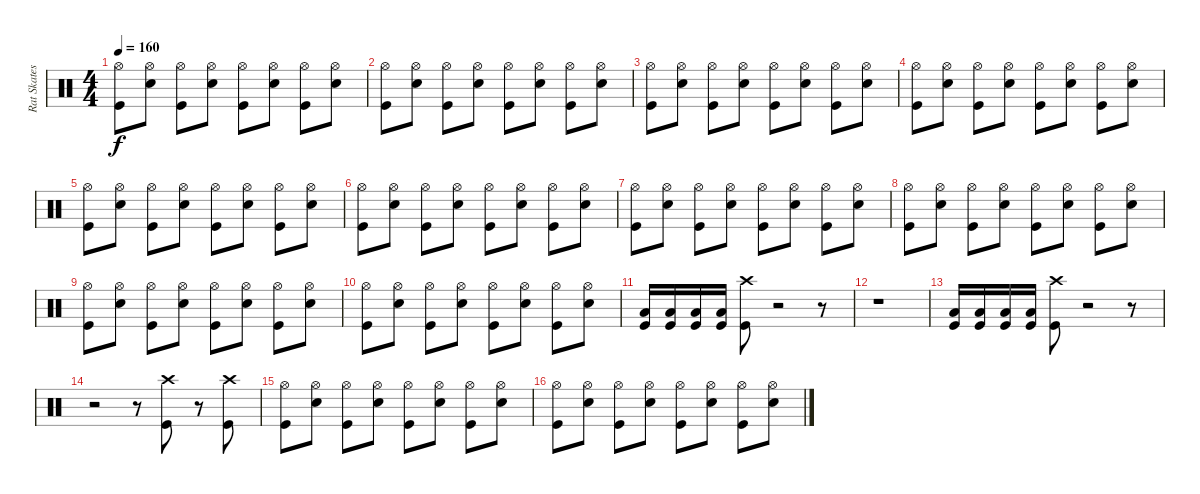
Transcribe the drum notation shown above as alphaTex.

\track ("Rat Skates" "Rat Skates") {instrument percussion}
\staff {score}
\articulation defaults
\ts (4 4)
\tempo 160
\clef neutral
\ks c
("Hi-Hat (open)" "Kick (hit)").8{dy f} ("Hi-Hat (open)" "Snare (hit) 2").8 ("Hi-Hat (open)" "Kick (hit)").8 ("Hi-Hat (open)" "Snare (hit) 2").8 ("Hi-Hat (open)" "Kick (hit)").8 ("Hi-Hat (open)" "Snare (hit) 2").8 ("Hi-Hat (open)" "Kick (hit)").8 ("Hi-Hat (open)" "Snare (hit) 2").8 |
("Hi-Hat (open)" "Kick (hit)").8 ("Hi-Hat (open)" "Snare (hit) 2").8 ("Hi-Hat (open)" "Kick (hit)").8 ("Hi-Hat (open)" "Snare (hit) 2").8 ("Hi-Hat (open)" "Kick (hit)").8 ("Hi-Hat (open)" "Snare (hit) 2").8 ("Hi-Hat (open)" "Kick (hit)").8 ("Hi-Hat (open)" "Snare (hit) 2").8 |
("Hi-Hat (open)" "Kick (hit)").8 ("Hi-Hat (open)" "Snare (hit) 2").8 ("Hi-Hat (open)" "Kick (hit)").8 ("Hi-Hat (open)" "Snare (hit) 2").8 ("Hi-Hat (open)" "Kick (hit)").8 ("Hi-Hat (open)" "Snare (hit) 2").8 ("Hi-Hat (open)" "Kick (hit)").8 ("Hi-Hat (open)" "Snare (hit) 2").8 |
("Hi-Hat (open)" "Kick (hit)").8 ("Hi-Hat (open)" "Snare (hit) 2").8 ("Hi-Hat (open)" "Kick (hit)").8 ("Hi-Hat (open)" "Snare (hit) 2").8 ("Hi-Hat (open)" "Kick (hit)").8 ("Hi-Hat (open)" "Snare (hit) 2").8 ("Hi-Hat (open)" "Kick (hit)").8 ("Hi-Hat (open)" "Snare (hit) 2").8 |
("Hi-Hat (open)" "Kick (hit)").8 ("Hi-Hat (open)" "Snare (hit) 2").8 ("Hi-Hat (open)" "Kick (hit)").8 ("Hi-Hat (open)" "Snare (hit) 2").8 ("Hi-Hat (open)" "Kick (hit)").8 ("Hi-Hat (open)" "Snare (hit) 2").8 ("Hi-Hat (open)" "Kick (hit)").8 ("Hi-Hat (open)" "Snare (hit) 2").8 |
("Hi-Hat (open)" "Kick (hit)").8 ("Hi-Hat (open)" "Snare (hit) 2").8 ("Hi-Hat (open)" "Kick (hit)").8 ("Hi-Hat (open)" "Snare (hit) 2").8 ("Hi-Hat (open)" "Kick (hit)").8 ("Hi-Hat (open)" "Snare (hit) 2").8 ("Hi-Hat (open)" "Kick (hit)").8 ("Hi-Hat (open)" "Snare (hit) 2").8 |
("Hi-Hat (open)" "Kick (hit)").8 ("Hi-Hat (open)" "Snare (hit) 2").8 ("Hi-Hat (open)" "Kick (hit)").8 ("Hi-Hat (open)" "Snare (hit) 2").8 ("Hi-Hat (open)" "Kick (hit)").8 ("Hi-Hat (open)" "Snare (hit) 2").8 ("Hi-Hat (open)" "Kick (hit)").8 ("Hi-Hat (open)" "Snare (hit) 2").8 |
("Hi-Hat (open)" "Kick (hit)").8 ("Hi-Hat (open)" "Snare (hit) 2").8 ("Hi-Hat (open)" "Kick (hit)").8 ("Hi-Hat (open)" "Snare (hit) 2").8 ("Hi-Hat (open)" "Kick (hit)").8 ("Hi-Hat (open)" "Snare (hit) 2").8 ("Hi-Hat (open)" "Kick (hit)").8 ("Hi-Hat (open)" "Snare (hit) 2").8 |
("Hi-Hat (open)" "Kick (hit)").8 ("Hi-Hat (open)" "Snare (hit) 2").8 ("Hi-Hat (open)" "Kick (hit)").8 ("Hi-Hat (open)" "Snare (hit) 2").8 ("Hi-Hat (open)" "Kick (hit)").8 ("Hi-Hat (open)" "Snare (hit) 2").8 ("Hi-Hat (open)" "Kick (hit)").8 ("Hi-Hat (open)" "Snare (hit) 2").8 |
("Hi-Hat (open)" "Kick (hit)").8 ("Hi-Hat (open)" "Snare (hit) 2").8 ("Hi-Hat (open)" "Kick (hit)").8 ("Hi-Hat (open)" "Snare (hit) 2").8 ("Hi-Hat (open)" "Kick (hit)").8 ("Hi-Hat (open)" "Snare (hit) 2").8 ("Hi-Hat (open)" "Kick (hit)").8 ("Hi-Hat (open)" "Snare (hit) 2").8 |
("Kick (hit)" "Low Tom (hit)").16 ("Kick (hit)" "Low Tom (hit)").16 ("Kick (hit)" "Low Tom (hit)").16 ("Kick (hit)" "Low Tom (hit)").16 ("Kick (hit)" "Crash high (hit)").8 r.2 r.8 |
r.1 |
("Kick (hit)" "Low Tom (hit)").16 ("Kick (hit)" "Low Tom (hit)").16 ("Kick (hit)" "Low Tom (hit)").16 ("Kick (hit)" "Low Tom (hit)").16 ("Kick (hit)" "Crash high (hit)").8 r.2 r.8 |
r.2 r.8 ("Kick (hit)" "Crash high (hit)").8 r.8 ("Crash high (hit)" "Kick (hit)").8 |
("Hi-Hat (open)" "Kick (hit)").8 ("Hi-Hat (open)" "Snare (hit) 2").8 ("Hi-Hat (open)" "Kick (hit)").8 ("Hi-Hat (open)" "Snare (hit) 2").8 ("Hi-Hat (open)" "Kick (hit)").8 ("Hi-Hat (open)" "Snare (hit) 2").8 ("Hi-Hat (open)" "Kick (hit)").8 ("Hi-Hat (open)" "Snare (hit) 2").8 |
("Hi-Hat (open)" "Kick (hit)").8 ("Hi-Hat (open)" "Snare (hit) 2").8 ("Hi-Hat (open)" "Kick (hit)").8 ("Hi-Hat (open)" "Snare (hit) 2").8 ("Hi-Hat (open)" "Kick (hit)").8 ("Hi-Hat (open)" "Snare (hit) 2").8 ("Hi-Hat (open)" "Kick (hit)").8 ("Hi-Hat (open)" "Snare (hit) 2").8
